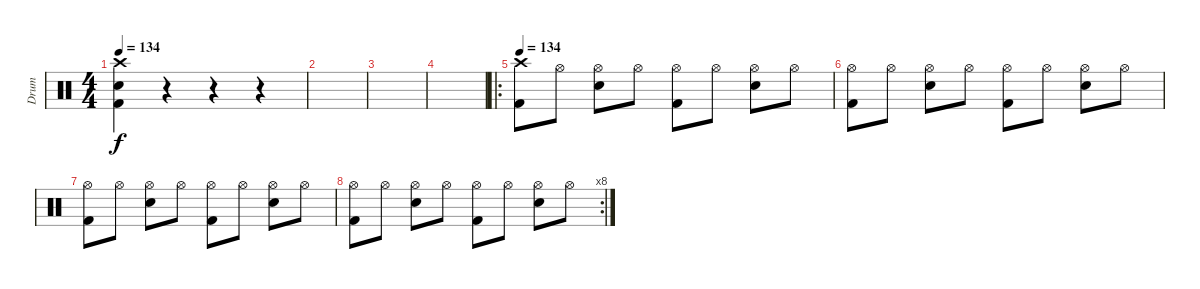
\track ("Drum" "Drum") {instrument percussion}
\staff {score}
\articulation defaults
\ts (4 4)
\tempo 134
\clef neutral
\ks c
("Crash high (hit)" "Electric Snare (hit)" "Kick (hit) 2").4{dy f} r.4 r.4 r.4 |
|
|
|
\ro
\tempo 134
("Crash high (hit)" "Kick (hit) 2").8 "Hi-Hat (open)".8 ("Hi-Hat (open)" "Electric Snare (hit)").8 "Hi-Hat (open)".8 ("Hi-Hat (open)" "Kick (hit) 2").8 "Hi-Hat (open)".8 ("Hi-Hat (open)" "Electric Snare (hit)").8 "Hi-Hat (open)".8 |
("Hi-Hat (open)" "Kick (hit) 2").8 "Hi-Hat (open)".8 ("Hi-Hat (open)" "Electric Snare (hit)").8 "Hi-Hat (open)".8 ("Hi-Hat (open)" "Kick (hit) 2").8 "Hi-Hat (open)".8 ("Hi-Hat (open)" "Electric Snare (hit)").8 "Hi-Hat (open)".8 |
("Hi-Hat (open)" "Kick (hit) 2").8 "Hi-Hat (open)".8 ("Hi-Hat (open)" "Electric Snare (hit)").8 "Hi-Hat (open)".8 ("Hi-Hat (open)" "Kick (hit) 2").8 "Hi-Hat (open)".8 ("Hi-Hat (open)" "Electric Snare (hit)").8 "Hi-Hat (open)".8 |
\rc 8
("Hi-Hat (open)" "Kick (hit) 2").8 "Hi-Hat (open)".8 ("Hi-Hat (open)" "Electric Snare (hit)").8 "Hi-Hat (open)".8 ("Hi-Hat (open)" "Kick (hit) 2").8 "Hi-Hat (open)".8 ("Hi-Hat (open)" "Electric Snare (hit)").8 "Hi-Hat (open)".8
